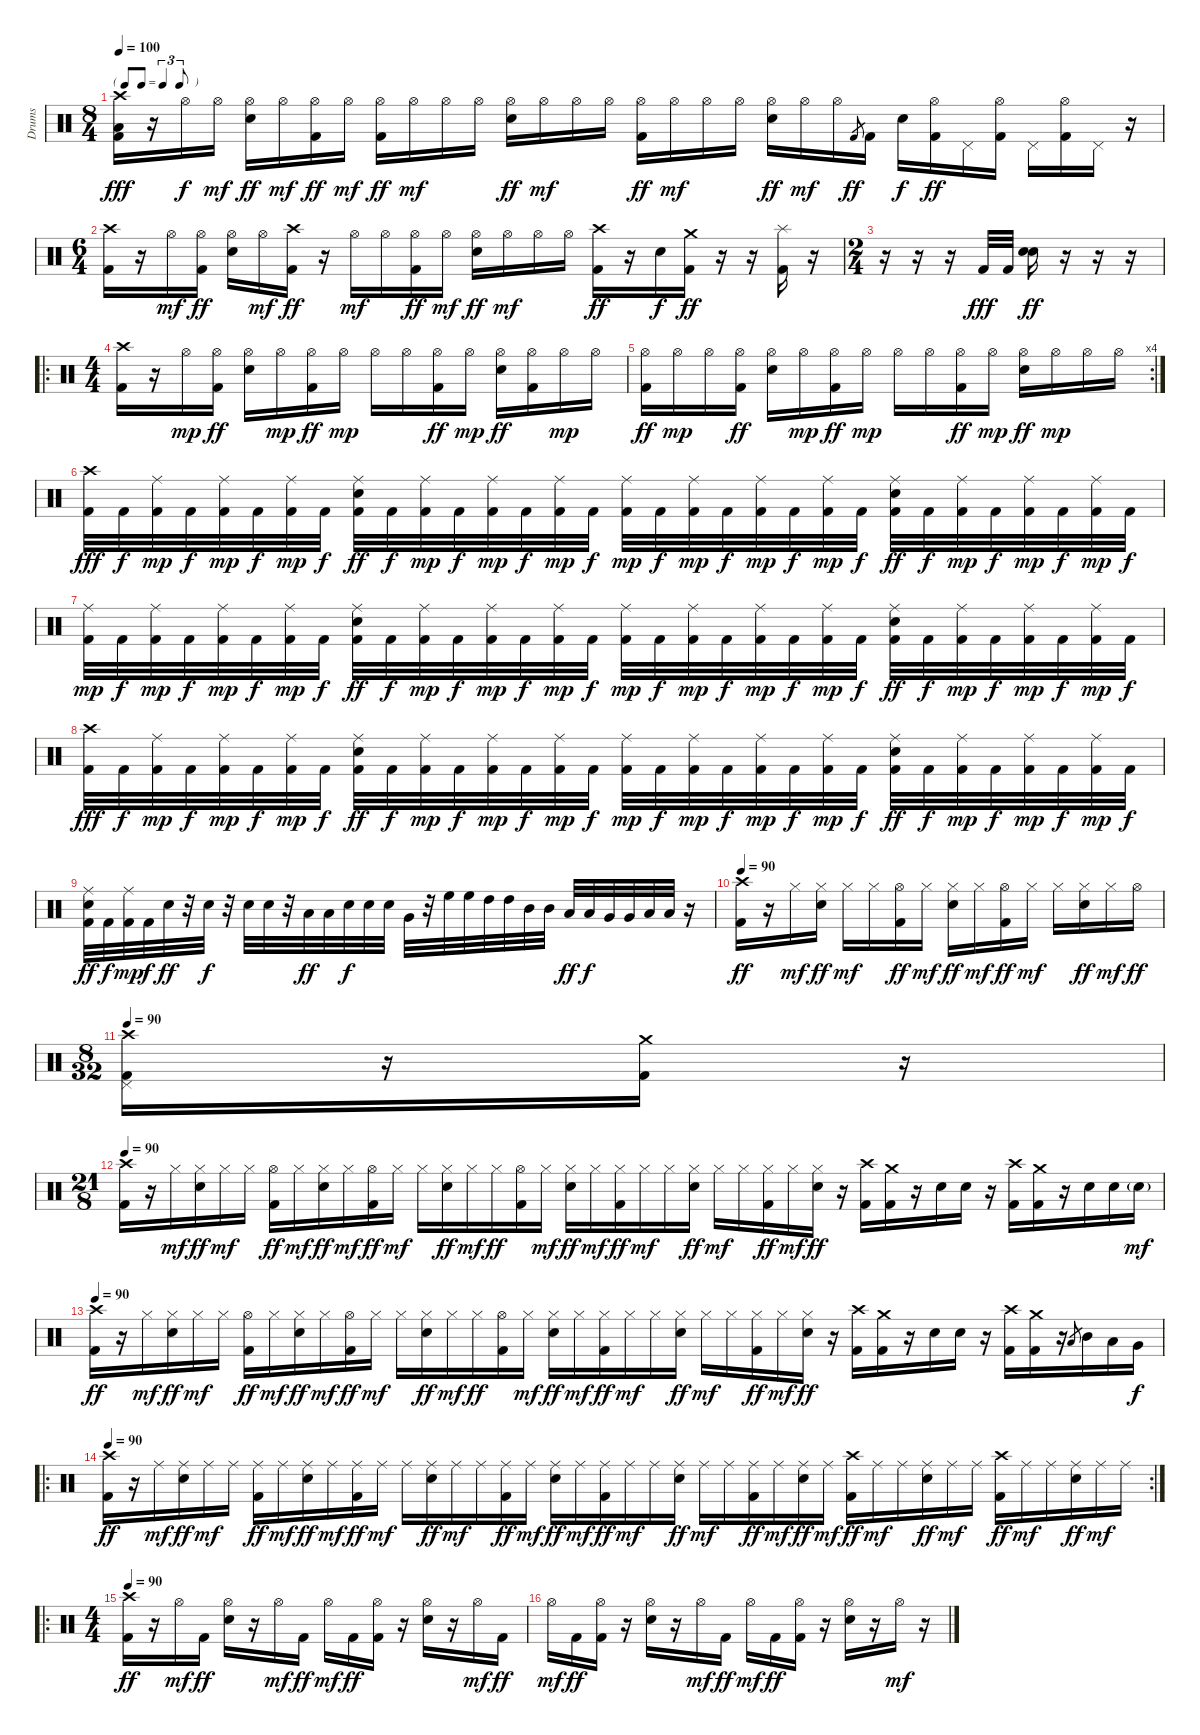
\track ("Drums" "Drums") {instrument percussion}
\staff {score}
\articulation defaults
\ts (8 4)
\tf triplet8th
\tempo 100
\clef neutral
\ks c
("Crash high (hit)" "Low Floor Tom (hit)" "Kick (hit) 2").16{dy fff} r.16 "Hi-Hat (open)".16{dy f} "Hi-Hat (open)".16{dy mf} ("Hi-Hat (open)" "Electric Snare (hit)").16{dy ff} "Hi-Hat (open)".16{dy mf} ("Hi-Hat (open)" "Kick (hit) 2").16{dy ff} "Hi-Hat (open)".16{dy mf} ("Hi-Hat (open)" "Kick (hit) 2").16{dy ff} "Hi-Hat (open)".16{dy mf} "Hi-Hat (open)".16 "Hi-Hat (open)".16 ("Hi-Hat (open)" "Electric Snare (hit)").16{dy ff} "Hi-Hat (open)".16{dy mf} "Hi-Hat (open)".16 "Hi-Hat (open)".16 ("Hi-Hat (open)" "Kick (hit) 2").16{dy ff} "Hi-Hat (open)".16{dy mf} "Hi-Hat (open)".16 "Hi-Hat (open)".16 ("Hi-Hat (open)" "Electric Snare (hit)").16{dy ff} "Hi-Hat (open)".16{dy mf} "Hi-Hat (open)".16 "Kick (hit) 2".8{gr dy ff} "Kick (hit) 2".16 "Electric Snare (hit)".16{dy f} ("Hi-Hat (open)" "Kick (hit) 2").16{dy ff} "Pedal Hi-Hat (hit)".16 ("Hi-Hat (open)" "Kick (hit) 2").16 "Pedal Hi-Hat (hit)".16 ("Hi-Hat (open)" "Kick (hit) 2").16 "Pedal Hi-Hat (hit)".16 r.16 |
\ts (6 4)
("Crash high (hit)" "Kick (hit) 2").16 r.16 "Hi-Hat (open)".16{dy mf} ("Hi-Hat (open)" "Kick (hit) 2").16{dy ff} ("Hi-Hat (open)" "Electric Snare (hit)").16 "Hi-Hat (open)".16{dy mf} ("Crash high (hit)" "Kick (hit) 2").16{dy ff} r.16 "Hi-Hat (open)".16{dy mf} "Hi-Hat (open)".16 ("Hi-Hat (open)" "Kick (hit) 2").16{dy ff} "Hi-Hat (open)".16{dy mf} ("Hi-Hat (open)" "Electric Snare (hit)").16{dy ff} "Hi-Hat (open)".16{dy mf} "Hi-Hat (open)".16 "Hi-Hat (open)".16 ("Crash high (hit)" "Kick (hit) 2").16{dy ff} r.16 "Electric Snare (hit)".16{dy f} ("Crash medium (hit)" "Kick (hit) 2").16{dy ff} r.16 r.16 ("Splash (hit)" "Kick (hit) 2").16 r.16 |
\ts (2 4)
r.16 r.16 r.16 "Kick (hit) 2".32{dy fff} "Kick (hit) 2".32 ("Electric Snare (hit)" "Metronome (bell)").16{dy ff} r.16 r.16 r.16 |
\ro
\ts (4 4)
("Crash high (hit)" "Kick (hit) 2").16 r.16 "Hi-Hat (open)".16{dy mp} ("Hi-Hat (open)" "Kick (hit) 2").16{dy ff} ("Hi-Hat (open)" "Electric Snare (hit)").16 "Hi-Hat (open)".16{dy mp} ("Hi-Hat (open)" "Kick (hit) 2").16{dy ff} "Hi-Hat (open)".16{dy mp} "Hi-Hat (open)".16 "Hi-Hat (open)".16 ("Hi-Hat (open)" "Kick (hit) 2").16{dy ff} "Hi-Hat (open)".16{dy mp} ("Hi-Hat (open)" "Electric Snare (hit)").16{dy ff} ("Hi-Hat (open)" "Kick (hit) 2").16 "Hi-Hat (open)".16{dy mp} "Hi-Hat (open)".16 |
\rc 4
("Hi-Hat (open)" "Kick (hit) 2").16{dy ff} "Hi-Hat (open)".16{dy mp} "Hi-Hat (open)".16 ("Hi-Hat (open)" "Kick (hit) 2").16{dy ff} ("Hi-Hat (open)" "Electric Snare (hit)").16 "Hi-Hat (open)".16{dy mp} ("Hi-Hat (open)" "Kick (hit) 2").16{dy ff} "Hi-Hat (open)".16{dy mp} "Hi-Hat (open)".16 "Hi-Hat (open)".16 ("Hi-Hat (open)" "Kick (hit) 2").16{dy ff} "Hi-Hat (open)".16{dy mp} ("Hi-Hat (open)" "Electric Snare (hit)").16{dy ff} "Hi-Hat (open)".16{dy mp} "Hi-Hat (open)".16 "Hi-Hat (open)".16 |
("Crash high (hit)" "Kick (hit) 2").32{dy fff} "Kick (hit) 2".32{dy f} ("Ride (middle)" "Kick (hit) 2").32{dy mp} "Kick (hit) 2".32{dy f} ("Ride (middle)" "Kick (hit) 2").32{dy mp} "Kick (hit) 2".32{dy f} ("Ride (middle)" "Kick (hit) 2").32{dy mp} "Kick (hit) 2".32{dy f} ("Ride (middle)" "Electric Snare (hit)" "Kick (hit) 2").32{dy ff} "Kick (hit) 2".32{dy f} ("Ride (middle)" "Kick (hit) 2").32{dy mp} "Kick (hit) 2".32{dy f} ("Ride (middle)" "Kick (hit) 2").32{dy mp} "Kick (hit) 2".32{dy f} ("Ride (middle)" "Kick (hit) 2").32{dy mp} "Kick (hit) 2".32{dy f} ("Ride (middle)" "Kick (hit) 2").32{dy mp} "Kick (hit) 2".32{dy f} ("Ride (middle)" "Kick (hit) 2").32{dy mp} "Kick (hit) 2".32{dy f} ("Ride (middle)" "Kick (hit) 2").32{dy mp} "Kick (hit) 2".32{dy f} ("Ride (middle)" "Kick (hit) 2").32{dy mp} "Kick (hit) 2".32{dy f} ("Ride (middle)" "Electric Snare (hit)" "Kick (hit) 2").32{dy ff} "Kick (hit) 2".32{dy f} ("Ride (middle)" "Kick (hit) 2").32{dy mp} "Kick (hit) 2".32{dy f} ("Ride (middle)" "Kick (hit) 2").32{dy mp} "Kick (hit) 2".32{dy f} ("Ride (middle)" "Kick (hit) 2").32{dy mp} "Kick (hit) 2".32{dy f} |
("Ride (middle)" "Kick (hit) 2").32{dy mp} "Kick (hit) 2".32{dy f} ("Ride (middle)" "Kick (hit) 2").32{dy mp} "Kick (hit) 2".32{dy f} ("Ride (middle)" "Kick (hit) 2").32{dy mp} "Kick (hit) 2".32{dy f} ("Ride (middle)" "Kick (hit) 2").32{dy mp} "Kick (hit) 2".32{dy f} ("Ride (middle)" "Electric Snare (hit)" "Kick (hit) 2").32{dy ff} "Kick (hit) 2".32{dy f} ("Ride (middle)" "Kick (hit) 2").32{dy mp} "Kick (hit) 2".32{dy f} ("Ride (middle)" "Kick (hit) 2").32{dy mp} "Kick (hit) 2".32{dy f} ("Ride (middle)" "Kick (hit) 2").32{dy mp} "Kick (hit) 2".32{dy f} ("Ride (middle)" "Kick (hit) 2").32{dy mp} "Kick (hit) 2".32{dy f} ("Ride (middle)" "Kick (hit) 2").32{dy mp} "Kick (hit) 2".32{dy f} ("Ride (middle)" "Kick (hit) 2").32{dy mp} "Kick (hit) 2".32{dy f} ("Ride (middle)" "Kick (hit) 2").32{dy mp} "Kick (hit) 2".32{dy f} ("Ride (middle)" "Electric Snare (hit)" "Kick (hit) 2").32{dy ff} "Kick (hit) 2".32{dy f} ("Ride (middle)" "Kick (hit) 2").32{dy mp} "Kick (hit) 2".32{dy f} ("Ride (middle)" "Kick (hit) 2").32{dy mp} "Kick (hit) 2".32{dy f} ("Ride (middle)" "Kick (hit) 2").32{dy mp} "Kick (hit) 2".32{dy f} |
("Crash high (hit)" "Kick (hit) 2").32{dy fff} "Kick (hit) 2".32{dy f} ("Ride (middle)" "Kick (hit) 2").32{dy mp} "Kick (hit) 2".32{dy f} ("Ride (middle)" "Kick (hit) 2").32{dy mp} "Kick (hit) 2".32{dy f} ("Ride (middle)" "Kick (hit) 2").32{dy mp} "Kick (hit) 2".32{dy f} ("Ride (middle)" "Electric Snare (hit)" "Kick (hit) 2").32{dy ff} "Kick (hit) 2".32{dy f} ("Ride (middle)" "Kick (hit) 2").32{dy mp} "Kick (hit) 2".32{dy f} ("Ride (middle)" "Kick (hit) 2").32{dy mp} "Kick (hit) 2".32{dy f} ("Ride (middle)" "Kick (hit) 2").32{dy mp} "Kick (hit) 2".32{dy f} ("Ride (middle)" "Kick (hit) 2").32{dy mp} "Kick (hit) 2".32{dy f} ("Ride (middle)" "Kick (hit) 2").32{dy mp} "Kick (hit) 2".32{dy f} ("Ride (middle)" "Kick (hit) 2").32{dy mp} "Kick (hit) 2".32{dy f} ("Ride (middle)" "Kick (hit) 2").32{dy mp} "Kick (hit) 2".32{dy f} ("Ride (middle)" "Electric Snare (hit)" "Kick (hit) 2").32{dy ff} "Kick (hit) 2".32{dy f} ("Ride (middle)" "Kick (hit) 2").32{dy mp} "Kick (hit) 2".32{dy f} ("Ride (middle)" "Kick (hit) 2").32{dy mp} "Kick (hit) 2".32{dy f} ("Ride (middle)" "Kick (hit) 2").32{dy mp} "Kick (hit) 2".32{dy f} |
("Ride (middle)" "Electric Snare (hit)" "Kick (hit) 2").32{dy ff} "Kick (hit) 2".32{dy f} ("Ride (middle)" "Kick (hit) 2").32{dy mp} "Kick (hit) 2".32{dy f} "Electric Snare (hit)".32{dy ff} r.32 "Electric Snare (hit)".32{dy f} r.32 "Electric Snare (hit)".32 "Electric Snare (hit)".32 r.32 "Low Tom (hit)".32{dy ff} "Low Tom (hit)".32 "Electric Snare (hit)".32{dy f} "Electric Snare (hit)".32 "Electric Snare (hit)".32 "Very Low Tom (hit)".32 r.32 "High Floor Tom (hit)".32 "High Floor Tom (hit)".32 "High Tom (hit)".32 "High Tom (hit)".32 "Mid Tom (hit)".32 "Mid Tom (hit)".32 "Low Tom (hit)".32{dy ff} "Low Tom (hit)".32{dy f} "Very Low Tom (hit)".32 "Very Low Tom (hit)".32 "Low Floor Tom (hit)".32 "Low Floor Tom (hit)".32 r.16 |
\tempo 90
("Crash high (hit)" "Kick (hit) 2").16{dy ff} r.16 "Hi-Hat (closed)".16{dy mf} ("Hi-Hat (closed)" "Electric Snare (hit)").16{dy ff} "Hi-Hat (closed)".16{dy mf} "Hi-Hat (closed)".16 ("Hi-Hat (open)" "Kick (hit) 2").16{dy ff} "Hi-Hat (closed)".16{dy mf} ("Hi-Hat (closed)" "Electric Snare (hit)").16{dy ff} "Hi-Hat (closed)".16{dy mf} ("Hi-Hat (open)" "Kick (hit) 2").16{dy ff} "Hi-Hat (closed)".16{dy mf} "Hi-Hat (closed)".16 ("Hi-Hat (closed)" "Electric Snare (hit)").16{dy ff} "Hi-Hat (closed)".16{dy mf} "Hi-Hat (open)".16{dy ff} |
\ts (8 32)
\tempo 90
("Crash high (hit)" "Pedal Hi-Hat (hit)" "Kick (hit) 2").16 r.16 ("Crash medium (hit)" "Kick (hit) 2").16 r.16 |
\ts (21 8)
\tempo 90
("Crash high (hit)" "Kick (hit) 2").16 r.16 "Hi-Hat (closed)".16{dy mf} ("Hi-Hat (closed)" "Electric Snare (hit)").16{dy ff} "Hi-Hat (closed)".16{dy mf} "Hi-Hat (closed)".16 ("Hi-Hat (open)" "Kick (hit) 2").16{dy ff} "Hi-Hat (closed)".16{dy mf} ("Hi-Hat (closed)" "Electric Snare (hit)").16{dy ff} "Hi-Hat (closed)".16{dy mf} ("Hi-Hat (open)" "Kick (hit) 2").16{dy ff} "Hi-Hat (closed)".16{dy mf} "Hi-Hat (closed)".16 ("Hi-Hat (closed)" "Electric Snare (hit)").16{dy ff} "Hi-Hat (closed)".16{dy mf} "Hi-Hat (closed)".16{dy ff} ("Hi-Hat (open)" "Kick (hit) 2").16 "Hi-Hat (closed)".16{dy mf} ("Hi-Hat (closed)" "Electric Snare (hit)").16{dy ff} "Hi-Hat (closed)".16{dy mf} ("Hi-Hat (closed)" "Kick (hit) 2").16{dy ff} "Hi-Hat (closed)".16{dy mf} "Hi-Hat (closed)".16 ("Hi-Hat (closed)" "Electric Snare (hit)").16{dy ff} "Hi-Hat (closed)".16{dy mf} "Hi-Hat (closed)".16 ("Hi-Hat (closed)" "Kick (hit) 2").16{dy ff} "Hi-Hat (closed)".16{dy mf} ("Hi-Hat (closed)" "Electric Snare (hit)").16{dy ff} r.16 ("Crash high (hit)" "Kick (hit) 2").16 ("Crash medium (hit)" "Kick (hit) 2").16 r.16 "Electric Snare (hit)".16 "Electric Snare (hit)".16 r.16 ("Crash high (hit)" "Kick (hit) 2").16 ("Crash medium (hit)" "Kick (hit) 2").16 r.16 "Electric Snare (hit)".16 "Electric Snare (hit)".16 "Electric Snare (hit)"{g}.16{dy mf} |
\tempo 90
("Crash high (hit)" "Kick (hit) 2").16{dy ff} r.16 "Hi-Hat (closed)".16{dy mf} ("Hi-Hat (closed)" "Electric Snare (hit)").16{dy ff} "Hi-Hat (closed)".16{dy mf} "Hi-Hat (closed)".16 ("Hi-Hat (open)" "Kick (hit) 2").16{dy ff} "Hi-Hat (closed)".16{dy mf} ("Hi-Hat (closed)" "Electric Snare (hit)").16{dy ff} "Hi-Hat (closed)".16{dy mf} ("Hi-Hat (open)" "Kick (hit) 2").16{dy ff} "Hi-Hat (closed)".16{dy mf} "Hi-Hat (closed)".16 ("Hi-Hat (closed)" "Electric Snare (hit)").16{dy ff} "Hi-Hat (closed)".16{dy mf} "Hi-Hat (closed)".16{dy ff} ("Hi-Hat (open)" "Kick (hit) 2").16 "Hi-Hat (closed)".16{dy mf} ("Hi-Hat (closed)" "Electric Snare (hit)").16{dy ff} "Hi-Hat (closed)".16{dy mf} ("Hi-Hat (closed)" "Kick (hit) 2").16{dy ff} "Hi-Hat (closed)".16{dy mf} "Hi-Hat (closed)".16 ("Hi-Hat (closed)" "Electric Snare (hit)").16{dy ff} "Hi-Hat (closed)".16{dy mf} "Hi-Hat (closed)".16 ("Hi-Hat (closed)" "Kick (hit) 2").16{dy ff} "Hi-Hat (closed)".16{dy mf} ("Hi-Hat (closed)" "Electric Snare (hit)").16{dy ff} r.16 ("Crash high (hit)" "Kick (hit) 2").16 ("Crash medium (hit)" "Kick (hit) 2").16 r.16 "Electric Snare (hit)".16 "Electric Snare (hit)".16 r.16 ("Crash high (hit)" "Kick (hit) 2").16 ("Crash medium (hit)" "Kick (hit) 2").16 r.16 "Low Tom (hit)".8{gr} "Mid Tom (hit)".16 "Low Tom (hit)".16 "Very Low Tom (hit)".16{dy f} |
\ro
\rc 2
\tempo 90
("Crash high (hit)" "Kick (hit) 2").16{dy ff} r.16 "Ride (middle)".16{dy mf} ("Ride (middle)" "Electric Snare (hit)").16{dy ff} "Ride (middle)".16{dy mf} "Ride (middle)".16 ("Ride (middle)" "Kick (hit) 2").16{dy ff} "Ride (middle)".16{dy mf} ("Ride (middle)" "Electric Snare (hit)").16{dy ff} "Ride (middle)".16{dy mf} ("Ride (middle)" "Kick (hit) 2").16{dy ff} "Ride (middle)".16{dy mf} "Ride (middle)".16 ("Ride (middle)" "Electric Snare (hit)").16{dy ff} "Ride (middle)".16{dy mf} "Ride (middle)".16 ("Ride (middle)" "Kick (hit) 2").16{dy ff} "Ride (middle)".16{dy mf} ("Ride (middle)" "Electric Snare (hit)").16{dy ff} "Ride (middle)".16{dy mf} ("Ride (middle)" "Kick (hit) 2").16{dy ff} "Ride (middle)".16{dy mf} "Ride (middle)".16 ("Ride (middle)" "Electric Snare (hit)").16{dy ff} "Ride (middle)".16{dy mf} "Ride (middle)".16 ("Ride (middle)" "Kick (hit) 2").16{dy ff} "Ride (middle)".16{dy mf} ("Ride (middle)" "Electric Snare (hit)").16{dy ff} "Ride (middle)".16{dy mf} ("Crash high (hit)" "Kick (hit) 2").16{dy ff} "Ride (middle)".16{dy mf} "Ride (middle)".16 ("Ride (middle)" "Electric Snare (hit)").16{dy ff} "Ride (middle)".16{dy mf} "Ride (middle)".16 ("Crash high (hit)" "Kick (hit) 2").16{dy ff} "Ride (middle)".16{dy mf} "Ride (middle)".16 ("Ride (middle)" "Electric Snare (hit)").16{dy ff} "Ride (middle)".16{dy mf} "Ride (middle)".16 |
\ro
\ts (4 4)
\tempo 90
("Crash high (hit)" "Kick (hit) 2").16{dy ff} r.16 "Hi-Hat (open)".16{dy mf} "Kick (hit) 2".16{dy ff} ("Hi-Hat (open)" "Electric Snare (hit)").16 r.16 "Hi-Hat (open)".16{dy mf} "Kick (hit) 2".16{dy ff} "Hi-Hat (open)".16{dy mf} "Kick (hit) 2".16{dy ff} ("Hi-Hat (open)" "Kick (hit) 2").16 r.16 ("Hi-Hat (open)" "Electric Snare (hit)").16 r.16 "Hi-Hat (open)".16{dy mf} "Kick (hit) 2".16{dy ff} |
"Hi-Hat (open)".16{dy mf} "Kick (hit) 2".16{dy ff} ("Hi-Hat (open)" "Kick (hit) 2").16 r.16 ("Hi-Hat (open)" "Electric Snare (hit)").16 r.16 "Hi-Hat (open)".16{dy mf} "Kick (hit) 2".16{dy ff} "Hi-Hat (open)".16{dy mf} "Kick (hit) 2".16{dy ff} ("Hi-Hat (open)" "Kick (hit) 2").16 r.16 ("Hi-Hat (open)" "Electric Snare (hit)").16 r.16 "Hi-Hat (open)".16{dy mf} r.16
